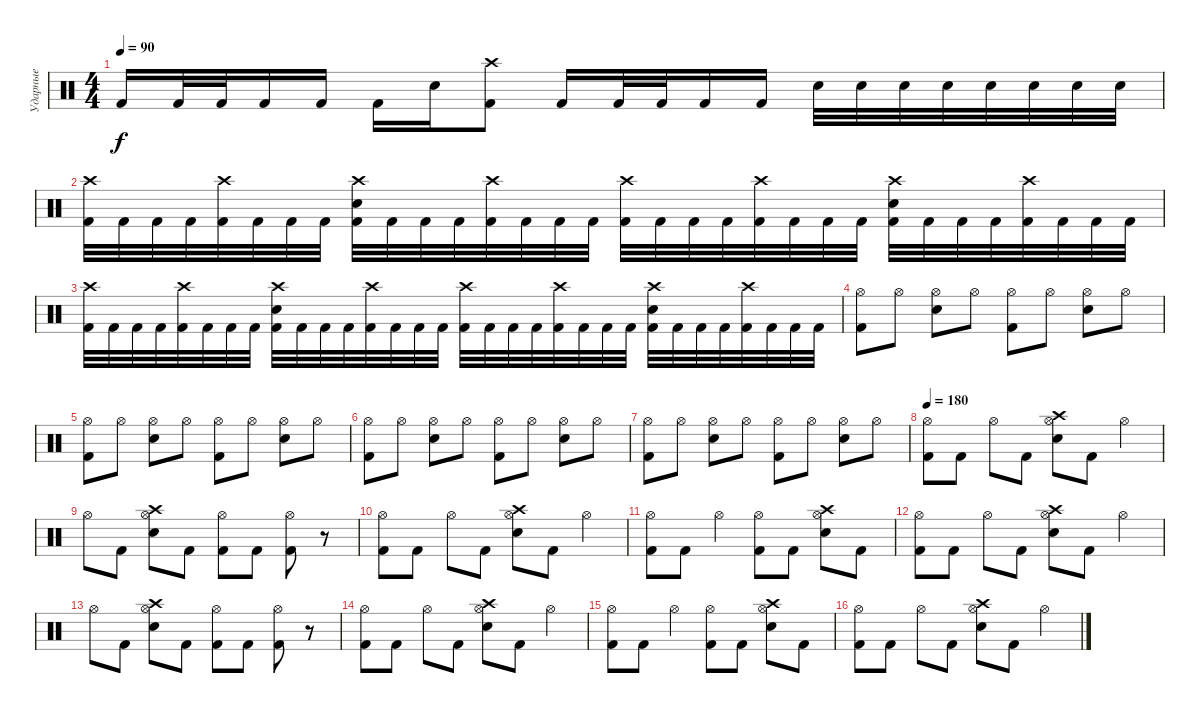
\track ("Ударные" "Ударные") {instrument percussion}
\staff {score}
\articulation defaults
\ts (4 4)
\tempo 90
\clef neutral
\ks c "Kick (hit) 2".16{dy f} "Kick (hit) 2".32 "Kick (hit) 2".32 "Kick (hit) 2".16 "Kick (hit) 2".16 "Kick (hit) 2".16 "Electric Snare (hit)".16
("Crash high (hit)" "Kick (hit) 2").8 "Kick (hit) 2".16 "Kick (hit) 2".32 "Kick (hit) 2".32 "Kick (hit) 2".16 "Kick (hit) 2".16 "Electric Snare (hit)".32 "Electric Snare (hit)".32 "Electric Snare (hit)".32 "Electric Snare (hit)".32 "Electric Snare (hit)".32 "Electric Snare (hit)".32 "Electric Snare (hit)".32 "Electric Snare (hit)".32 |
("Crash high (hit)" "Kick (hit) 2").32 "Kick (hit) 2".32 "Kick (hit) 2".32 "Kick (hit) 2".32 ("Crash high (hit)" "Kick (hit) 2").32 "Kick (hit) 2".32 "Kick (hit) 2".32 "Kick (hit) 2".32 ("Crash high (hit)" "Electric Snare (hit)" "Kick (hit) 2").32 "Kick (hit) 2".32 "Kick (hit) 2".32 "Kick (hit) 2".32 ("Crash high (hit)" "Kick (hit) 2").32 "Kick (hit) 2".32 "Kick (hit) 2".32 "Kick (hit) 2".32 ("Crash high (hit)" "Kick (hit) 2").32 "Kick (hit) 2".32 "Kick (hit) 2".32 "Kick (hit) 2".32 ("Crash high (hit)" "Kick (hit) 2").32 "Kick (hit) 2".32 "Kick (hit) 2".32 "Kick (hit) 2".32 ("Electric Snare (hit)" "Crash high (hit)" "Kick (hit) 2").32 "Kick (hit) 2".32 "Kick (hit) 2".32 "Kick (hit) 2".32 ("Crash high (hit)" "Kick (hit) 2").32 "Kick (hit) 2".32 "Kick (hit) 2".32 "Kick (hit) 2".32 |
("Crash high (hit)" "Kick (hit) 2").32 "Kick (hit) 2".32 "Kick (hit) 2".32 "Kick (hit) 2".32 ("Crash high (hit)" "Kick (hit) 2").32 "Kick (hit) 2".32 "Kick (hit) 2".32 "Kick (hit) 2".32 ("Crash high (hit)" "Electric Snare (hit)" "Kick (hit) 2").32 "Kick (hit) 2".32 "Kick (hit) 2".32 "Kick (hit) 2".32 ("Crash high (hit)" "Kick (hit) 2").32 "Kick (hit) 2".32 "Kick (hit) 2".32 "Kick (hit) 2".32 ("Crash high (hit)" "Kick (hit) 2").32 "Kick (hit) 2".32 "Kick (hit) 2".32 "Kick (hit) 2".32 ("Crash high (hit)" "Kick (hit) 2").32 "Kick (hit) 2".32 "Kick (hit) 2".32 "Kick (hit) 2".32 ("Crash high (hit)" "Electric Snare (hit)" "Kick (hit) 2").32 "Kick (hit) 2".32 "Kick (hit) 2".32 "Kick (hit) 2".32 ("Crash high (hit)" "Kick (hit) 2").32 "Kick (hit) 2".32 "Kick (hit) 2".32 "Kick (hit) 2".32 |
("Kick (hit) 2" "Hi-Hat (open)").8 "Hi-Hat (open)".8 ("Electric Snare (hit)" "Hi-Hat (open)").8 "Hi-Hat (open)".8 ("Kick (hit) 2" "Hi-Hat (open)").8 "Hi-Hat (open)".8 ("Electric Snare (hit)" "Hi-Hat (open)").8 "Hi-Hat (open)".8 |
("Kick (hit) 2" "Hi-Hat (open)").8 "Hi-Hat (open)".8 ("Electric Snare (hit)" "Hi-Hat (open)").8 "Hi-Hat (open)".8 ("Kick (hit) 2" "Hi-Hat (open)").8 "Hi-Hat (open)".8 ("Electric Snare (hit)" "Hi-Hat (open)").8 "Hi-Hat (open)".8 |
("Kick (hit) 2" "Hi-Hat (open)").8 "Hi-Hat (open)".8 ("Electric Snare (hit)" "Hi-Hat (open)").8 "Hi-Hat (open)".8 ("Kick (hit) 2" "Hi-Hat (open)").8 "Hi-Hat (open)".8 ("Electric Snare (hit)" "Hi-Hat (open)").8 "Hi-Hat (open)".8 |
("Kick (hit) 2" "Hi-Hat (open)").8 "Hi-Hat (open)".8 ("Electric Snare (hit)" "Hi-Hat (open)").8 "Hi-Hat (open)".8 ("Kick (hit) 2" "Hi-Hat (open)").8 "Hi-Hat (open)".8 ("Electric Snare (hit)" "Hi-Hat (open)").8 "Hi-Hat (open)".8 |
\tempo 180
("Kick (hit) 2" "Hi-Hat (open)").8 "Kick (hit) 2".8 "Hi-Hat (open)".8 "Kick (hit) 2".8 ("Electric Snare (hit)" "Crash high (hit)" "Hi-Hat (open)").8 "Kick (hit) 2".8 "Hi-Hat (open)".4 |
"Hi-Hat (open)".8 "Kick (hit) 2".8 ("Electric Snare (hit)" "Crash high (hit)" "Hi-Hat (open)").8 "Kick (hit) 2".8 ("Kick (hit) 2" "Hi-Hat (open)").8 "Kick (hit) 2".8 ("Kick (hit) 2" "Hi-Hat (open)").8 r.8 |
("Kick (hit) 2" "Hi-Hat (open)").8 "Kick (hit) 2".8 "Hi-Hat (open)".8 "Kick (hit) 2".8 ("Electric Snare (hit)" "Crash high (hit)" "Hi-Hat (open)").8 "Kick (hit) 2".8 "Hi-Hat (open)".4 |
("Kick (hit) 2" "Hi-Hat (open)").8 "Kick (hit) 2".8 "Hi-Hat (open)".4 ("Kick (hit) 2" "Hi-Hat (open)").8 "Kick (hit) 2".8 ("Electric Snare (hit)" "Crash high (hit)" "Hi-Hat (open)").8 "Kick (hit) 2".8 |
("Kick (hit) 2" "Hi-Hat (open)").8 "Kick (hit) 2".8 "Hi-Hat (open)".8 "Kick (hit) 2".8 ("Electric Snare (hit)" "Crash high (hit)" "Hi-Hat (open)").8 "Kick (hit) 2".8 "Hi-Hat (open)".4 |
"Hi-Hat (open)".8 "Kick (hit) 2".8 ("Electric Snare (hit)" "Crash high (hit)" "Hi-Hat (open)").8 "Kick (hit) 2".8 ("Kick (hit) 2" "Hi-Hat (open)").8 "Kick (hit) 2".8 ("Kick (hit) 2" "Hi-Hat (open)").8 r.8 |
("Kick (hit) 2" "Hi-Hat (open)").8 "Kick (hit) 2".8 "Hi-Hat (open)".8 "Kick (hit) 2".8 ("Electric Snare (hit)" "Crash high (hit)" "Hi-Hat (open)").8 "Kick (hit) 2".8 "Hi-Hat (open)".4 |
("Kick (hit) 2" "Hi-Hat (open)").8 "Kick (hit) 2".8 "Hi-Hat (open)".4 ("Kick (hit) 2" "Hi-Hat (open)").8 "Kick (hit) 2".8 ("Electric Snare (hit)" "Crash high (hit)" "Hi-Hat (open)").8 "Kick (hit) 2".8 |
("Kick (hit) 2" "Hi-Hat (open)").8 "Kick (hit) 2".8 "Hi-Hat (open)".8 "Kick (hit) 2".8 ("Electric Snare (hit)" "Crash high (hit)" "Hi-Hat (open)").8 "Kick (hit) 2".8 "Hi-Hat (open)".4
